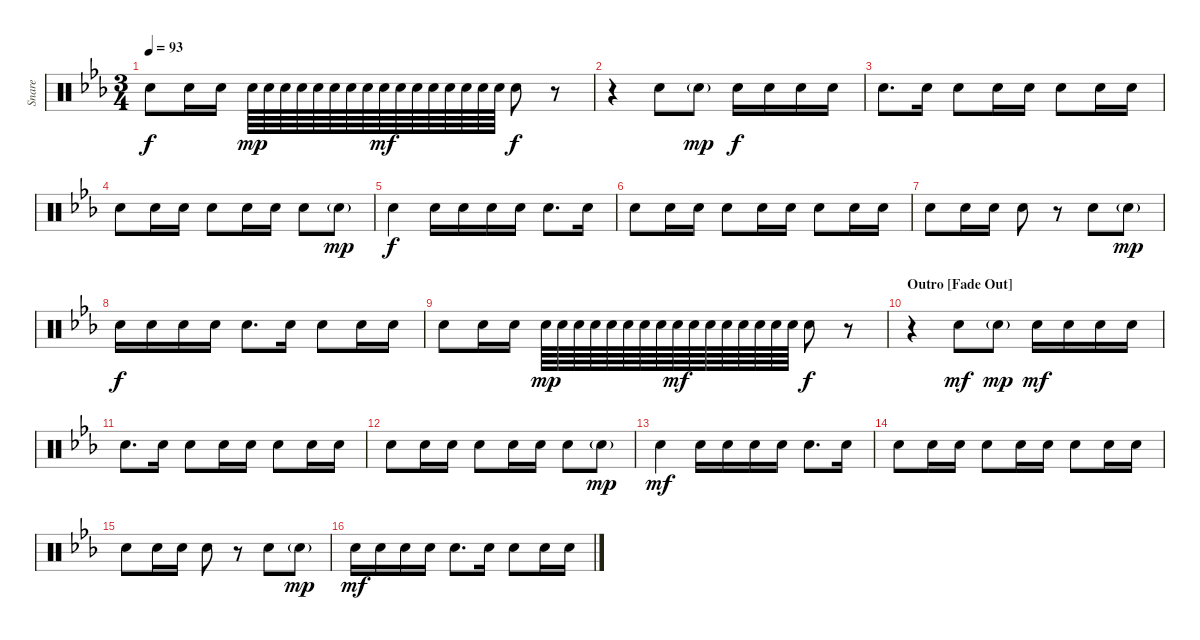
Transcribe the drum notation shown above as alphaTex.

\track ("Snare" "Snare") {instrument percussion}
\staff {score}
\articulation defaults
\ts (3 4)
\tempo 93
\clef neutral
\ks cminor "Electric Snare (hit)".8{dy f} "Electric Snare (hit)".16 "Electric Snare (hit)".16 "Electric Snare (hit)".64{dy mp} "Electric Snare (hit)".64 "Electric Snare (hit)".64 "Electric Snare (hit)".64 "Electric Snare (hit)".64 "Electric Snare (hit)".64 "Electric Snare (hit)".64 "Electric Snare (hit)".64 "Electric Snare (hit)".64{dy mf} "Electric Snare (hit)".64 "Electric Snare (hit)".64 "Electric Snare (hit)".64 "Electric Snare (hit)".64 "Electric Snare (hit)".64 "Electric Snare (hit)".64 "Electric Snare (hit)".64 "Electric Snare (hit)".8{dy f}
r.8 |
r.4 "Electric Snare (hit)".8 "Electric Snare (hit)"{g}.8{dy mp} "Electric Snare (hit)".16{dy f} "Electric Snare (hit)".16 "Electric Snare (hit)".16 "Electric Snare (hit)".16 |
"Electric Snare (hit)".8{d} "Electric Snare (hit)".16 "Electric Snare (hit)".8 "Electric Snare (hit)".16 "Electric Snare (hit)".16 "Electric Snare (hit)".8 "Electric Snare (hit)".16 "Electric Snare (hit)".16 |
"Electric Snare (hit)".8 "Electric Snare (hit)".16 "Electric Snare (hit)".16 "Electric Snare (hit)".8 "Electric Snare (hit)".16 "Electric Snare (hit)".16 "Electric Snare (hit)".8 "Electric Snare (hit)"{g}.8{dy mp} |
"Electric Snare (hit)".4{dy f} "Electric Snare (hit)".16 "Electric Snare (hit)".16 "Electric Snare (hit)".16 "Electric Snare (hit)".16 "Electric Snare (hit)".8{d} "Electric Snare (hit)".16 |
"Electric Snare (hit)".8 "Electric Snare (hit)".16 "Electric Snare (hit)".16 "Electric Snare (hit)".8 "Electric Snare (hit)".16 "Electric Snare (hit)".16 "Electric Snare (hit)".8 "Electric Snare (hit)".16 "Electric Snare (hit)".16 |
"Electric Snare (hit)".8 "Electric Snare (hit)".16 "Electric Snare (hit)".16 "Electric Snare (hit)".8 r.8 "Electric Snare (hit)".8 "Electric Snare (hit)"{g}.8{dy mp} |
"Electric Snare (hit)".16{dy f} "Electric Snare (hit)".16 "Electric Snare (hit)".16 "Electric Snare (hit)".16 "Electric Snare (hit)".8{d} "Electric Snare (hit)".16 "Electric Snare (hit)".8 "Electric Snare (hit)".16 "Electric Snare (hit)".16 |
"Electric Snare (hit)".8 "Electric Snare (hit)".16 "Electric Snare (hit)".16 "Electric Snare (hit)".64{dy mp} "Electric Snare (hit)".64 "Electric Snare (hit)".64 "Electric Snare (hit)".64 "Electric Snare (hit)".64 "Electric Snare (hit)".64 "Electric Snare (hit)".64 "Electric Snare (hit)".64 "Electric Snare (hit)".64{dy mf} "Electric Snare (hit)".64 "Electric Snare (hit)".64 "Electric Snare (hit)".64 "Electric Snare (hit)".64 "Electric Snare (hit)".64 "Electric Snare (hit)".64 "Electric Snare (hit)".64 "Electric Snare (hit)".8{dy f} r.8 |
\section ("" "Outro [Fade Out]")
r.4 "Electric Snare (hit)".8{dy mf} "Electric Snare (hit)"{g}.8{dy mp} "Electric Snare (hit)".16{dy mf} "Electric Snare (hit)".16 "Electric Snare (hit)".16 "Electric Snare (hit)".16 |
"Electric Snare (hit)".8{d} "Electric Snare (hit)".16 "Electric Snare (hit)".8 "Electric Snare (hit)".16 "Electric Snare (hit)".16 "Electric Snare (hit)".8 "Electric Snare (hit)".16 "Electric Snare (hit)".16 |
"Electric Snare (hit)".8 "Electric Snare (hit)".16 "Electric Snare (hit)".16 "Electric Snare (hit)".8 "Electric Snare (hit)".16 "Electric Snare (hit)".16 "Electric Snare (hit)".8 "Electric Snare (hit)"{g}.8{dy mp} |
"Electric Snare (hit)".4{dy mf} "Electric Snare (hit)".16 "Electric Snare (hit)".16 "Electric Snare (hit)".16 "Electric Snare (hit)".16 "Electric Snare (hit)".8{d} "Electric Snare (hit)".16 |
"Electric Snare (hit)".8 "Electric Snare (hit)".16 "Electric Snare (hit)".16 "Electric Snare (hit)".8 "Electric Snare (hit)".16 "Electric Snare (hit)".16 "Electric Snare (hit)".8 "Electric Snare (hit)".16 "Electric Snare (hit)".16 |
"Electric Snare (hit)".8 "Electric Snare (hit)".16 "Electric Snare (hit)".16 "Electric Snare (hit)".8 r.8 "Electric Snare (hit)".8 "Electric Snare (hit)"{g}.8{dy mp} |
"Electric Snare (hit)".16{dy mf} "Electric Snare (hit)".16 "Electric Snare (hit)".16 "Electric Snare (hit)".16 "Electric Snare (hit)".8{d} "Electric Snare (hit)".16 "Electric Snare (hit)".8 "Electric Snare (hit)".16 "Electric Snare (hit)".16
